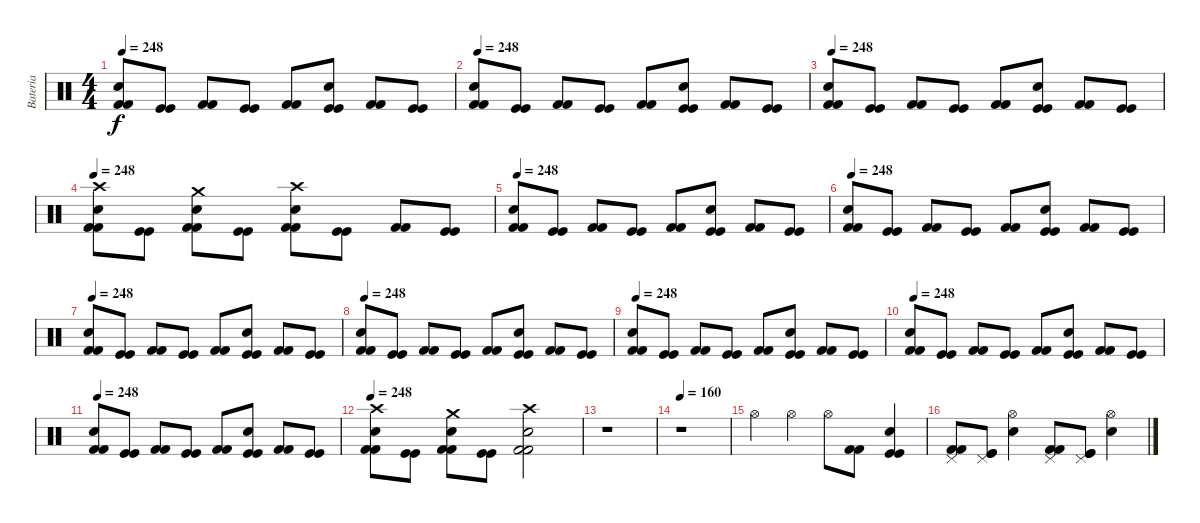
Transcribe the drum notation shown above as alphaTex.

\track ("Bateria" "Bateria") {instrument percussion}
\staff {score}
\articulation defaults
\ts (4 4)
\tempo 248
\clef neutral
\ks c
("Kick (hit) 2" "Kick (hit) 2" "Snare (hit) 2").8{dy f} ("Kick (hit)" "Kick (hit)").8 ("Kick (hit) 2" "Kick (hit) 2").8 ("Kick (hit)" "Kick (hit)").8 ("Kick (hit) 2" "Kick (hit) 2").8 ("Kick (hit)" "Kick (hit)" "Snare (hit) 2").8 ("Kick (hit) 2" "Kick (hit) 2").8 ("Kick (hit)" "Kick (hit)").8 |
\tempo 248
("Kick (hit) 2" "Kick (hit) 2" "Snare (hit) 2").8 ("Kick (hit)" "Kick (hit)").8 ("Kick (hit) 2" "Kick (hit) 2").8 ("Kick (hit)" "Kick (hit)").8 ("Kick (hit) 2" "Kick (hit) 2").8 ("Kick (hit)" "Kick (hit)" "Snare (hit) 2").8 ("Kick (hit) 2" "Kick (hit) 2").8 ("Kick (hit)" "Kick (hit)").8 |
\tempo 248
("Kick (hit) 2" "Kick (hit) 2" "Snare (hit) 2").8 ("Kick (hit)" "Kick (hit)").8 ("Kick (hit) 2" "Kick (hit) 2").8 ("Kick (hit)" "Kick (hit)").8 ("Kick (hit) 2" "Kick (hit) 2").8 ("Kick (hit)" "Kick (hit)" "Snare (hit) 2").8 ("Kick (hit) 2" "Kick (hit) 2").8 ("Kick (hit)" "Kick (hit)").8 |
\tempo 248
("Kick (hit) 2" "Kick (hit) 2" "Snare (hit) 2" "Crash high (hit)").8 ("Kick (hit)" "Kick (hit)").8 ("Kick (hit) 2" "Kick (hit) 2" "Snare (hit) 2" "Crash medium (hit)").8 ("Kick (hit)" "Kick (hit)").8 ("Kick (hit) 2" "Kick (hit) 2" "Snare (hit) 2" "Crash high (hit)").8 ("Kick (hit)" "Kick (hit)").8 ("Kick (hit) 2" "Kick (hit) 2").8 ("Kick (hit)" "Kick (hit)").8 |
\tempo 248
("Kick (hit) 2" "Kick (hit) 2" "Snare (hit) 2").8 ("Kick (hit)" "Kick (hit)").8 ("Kick (hit) 2" "Kick (hit) 2").8 ("Kick (hit)" "Kick (hit)").8 ("Kick (hit) 2" "Kick (hit) 2").8 ("Kick (hit)" "Kick (hit)" "Snare (hit) 2").8 ("Kick (hit) 2" "Kick (hit) 2").8 ("Kick (hit)" "Kick (hit)").8 |
\tempo 248
("Kick (hit) 2" "Kick (hit) 2" "Snare (hit) 2").8 ("Kick (hit)" "Kick (hit)").8 ("Kick (hit) 2" "Kick (hit) 2").8 ("Kick (hit)" "Kick (hit)").8 ("Kick (hit) 2" "Kick (hit) 2").8 ("Kick (hit)" "Kick (hit)" "Snare (hit) 2").8 ("Kick (hit) 2" "Kick (hit) 2").8 ("Kick (hit)" "Kick (hit)").8 |
\tempo 248
("Kick (hit) 2" "Kick (hit) 2" "Snare (hit) 2").8 ("Kick (hit)" "Kick (hit)").8 ("Kick (hit) 2" "Kick (hit) 2").8 ("Kick (hit)" "Kick (hit)").8 ("Kick (hit) 2" "Kick (hit) 2").8 ("Kick (hit)" "Kick (hit)" "Snare (hit) 2").8 ("Kick (hit) 2" "Kick (hit) 2").8 ("Kick (hit)" "Kick (hit)").8 |
\tempo 248
("Kick (hit) 2" "Kick (hit) 2" "Snare (hit) 2").8 ("Kick (hit)" "Kick (hit)").8 ("Kick (hit) 2" "Kick (hit) 2").8 ("Kick (hit)" "Kick (hit)").8 ("Kick (hit) 2" "Kick (hit) 2").8 ("Kick (hit)" "Kick (hit)" "Snare (hit) 2").8 ("Kick (hit) 2" "Kick (hit) 2").8 ("Kick (hit)" "Kick (hit)").8 |
\tempo 248
("Kick (hit) 2" "Kick (hit) 2" "Snare (hit) 2").8 ("Kick (hit)" "Kick (hit)").8 ("Kick (hit) 2" "Kick (hit) 2").8 ("Kick (hit)" "Kick (hit)").8 ("Kick (hit) 2" "Kick (hit) 2").8 ("Kick (hit)" "Kick (hit)" "Snare (hit) 2").8 ("Kick (hit) 2" "Kick (hit) 2").8 ("Kick (hit)" "Kick (hit)").8 |
\tempo 248
("Kick (hit) 2" "Kick (hit) 2" "Snare (hit) 2").8 ("Kick (hit)" "Kick (hit)").8 ("Kick (hit) 2" "Kick (hit) 2").8 ("Kick (hit)" "Kick (hit)").8 ("Kick (hit) 2" "Kick (hit) 2").8 ("Kick (hit)" "Kick (hit)" "Snare (hit) 2").8 ("Kick (hit) 2" "Kick (hit) 2").8 ("Kick (hit)" "Kick (hit)").8 |
\tempo 248
("Kick (hit) 2" "Kick (hit) 2" "Snare (hit) 2").8 ("Kick (hit)" "Kick (hit)").8 ("Kick (hit) 2" "Kick (hit) 2").8 ("Kick (hit)" "Kick (hit)").8 ("Kick (hit) 2" "Kick (hit) 2").8 ("Kick (hit)" "Kick (hit)" "Snare (hit) 2").8 ("Kick (hit) 2" "Kick (hit) 2").8 ("Kick (hit)" "Kick (hit)").8 |
\tempo 248
("Kick (hit) 2" "Kick (hit) 2" "Snare (hit) 2" "Crash high (hit)").8 ("Kick (hit)" "Kick (hit)").8 ("Kick (hit) 2" "Kick (hit) 2" "Snare (hit) 2" "Crash medium (hit)").8 ("Kick (hit)" "Kick (hit)").8 ("Kick (hit) 2" "Kick (hit) 2" "Snare (hit) 2" "Crash high (hit)").2 |
r.1 |
\tempo 160
r.1 |
"Hi-Hat (open)".4 "Hi-Hat (open)".4 "Hi-Hat (open)".8 ("Kick (hit) 2" "Kick (hit) 2").8 ("Kick (hit)" "Kick (hit)" "Snare (hit) 2").4 |
("Kick (hit) 2" "Kick (hit) 2" "Pedal Hi-Hat (hit)").8 ("Kick (hit)" "Kick (hit)" "Pedal Hi-Hat (hit)").8 ("Snare (hit) 2" "Hi-Hat (open)").4 ("Kick (hit) 2" "Kick (hit) 2" "Pedal Hi-Hat (hit)").8 ("Kick (hit)" "Kick (hit)" "Pedal Hi-Hat (hit)").8 ("Snare (hit) 2" "Hi-Hat (open)").4
